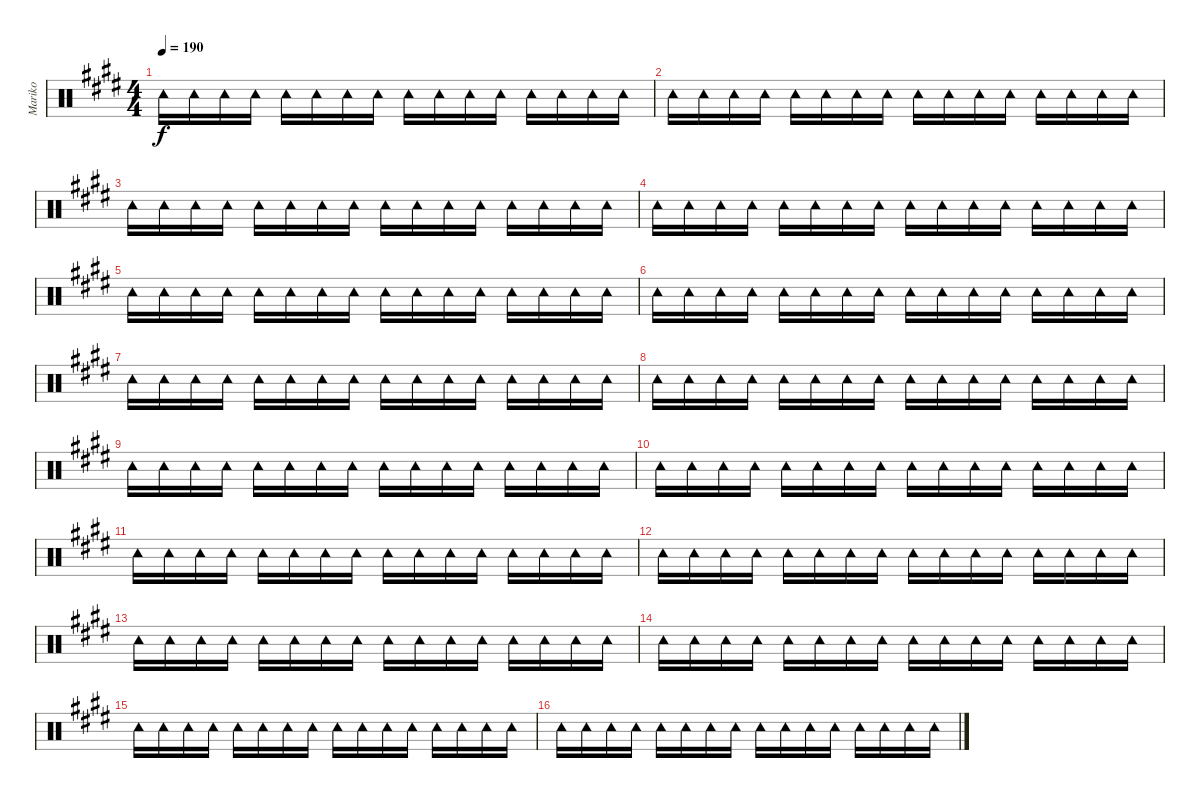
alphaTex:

\track ("Mariko" "Mariko") {mute instrument percussion}
\staff {score}
\articulation defaults
\ts (4 4)
\tempo 190
\clef neutral
\ks e "Tambourine (hit)".16{dy f} "Tambourine (hit)".16 "Tambourine (hit)".16 "Tambourine (hit)".16 "Tambourine (hit)".16 "Tambourine (hit)".16 "Tambourine (hit)".16 "Tambourine (hit)".16 "Tambourine (hit)".16 "Tambourine (hit)".16 "Tambourine (hit)".16 "Tambourine (hit)".16 "Tambourine (hit)".16 "Tambourine (hit)".16 "Tambourine (hit)".16 "Tambourine (hit)".16
|
"Tambourine (hit)".16 "Tambourine (hit)".16 "Tambourine (hit)".16 "Tambourine (hit)".16 "Tambourine (hit)".16 "Tambourine (hit)".16 "Tambourine (hit)".16 "Tambourine (hit)".16 "Tambourine (hit)".16 "Tambourine (hit)".16 "Tambourine (hit)".16 "Tambourine (hit)".16 "Tambourine (hit)".16 "Tambourine (hit)".16 "Tambourine (hit)".16 "Tambourine (hit)".16 |
"Tambourine (hit)".16 "Tambourine (hit)".16 "Tambourine (hit)".16 "Tambourine (hit)".16 "Tambourine (hit)".16 "Tambourine (hit)".16 "Tambourine (hit)".16 "Tambourine (hit)".16 "Tambourine (hit)".16 "Tambourine (hit)".16 "Tambourine (hit)".16 "Tambourine (hit)".16 "Tambourine (hit)".16 "Tambourine (hit)".16 "Tambourine (hit)".16 "Tambourine (hit)".16 |
"Tambourine (hit)".16 "Tambourine (hit)".16 "Tambourine (hit)".16 "Tambourine (hit)".16 "Tambourine (hit)".16 "Tambourine (hit)".16 "Tambourine (hit)".16 "Tambourine (hit)".16 "Tambourine (hit)".16 "Tambourine (hit)".16 "Tambourine (hit)".16 "Tambourine (hit)".16 "Tambourine (hit)".16 "Tambourine (hit)".16 "Tambourine (hit)".16 "Tambourine (hit)".16 |
"Tambourine (hit)".16 "Tambourine (hit)".16 "Tambourine (hit)".16 "Tambourine (hit)".16 "Tambourine (hit)".16 "Tambourine (hit)".16 "Tambourine (hit)".16 "Tambourine (hit)".16 "Tambourine (hit)".16 "Tambourine (hit)".16 "Tambourine (hit)".16 "Tambourine (hit)".16 "Tambourine (hit)".16 "Tambourine (hit)".16 "Tambourine (hit)".16 "Tambourine (hit)".16 |
"Tambourine (hit)".16 "Tambourine (hit)".16 "Tambourine (hit)".16 "Tambourine (hit)".16 "Tambourine (hit)".16 "Tambourine (hit)".16 "Tambourine (hit)".16 "Tambourine (hit)".16 "Tambourine (hit)".16 "Tambourine (hit)".16 "Tambourine (hit)".16 "Tambourine (hit)".16 "Tambourine (hit)".16 "Tambourine (hit)".16 "Tambourine (hit)".16 "Tambourine (hit)".16 |
"Tambourine (hit)".16 "Tambourine (hit)".16 "Tambourine (hit)".16 "Tambourine (hit)".16 "Tambourine (hit)".16 "Tambourine (hit)".16 "Tambourine (hit)".16 "Tambourine (hit)".16 "Tambourine (hit)".16 "Tambourine (hit)".16 "Tambourine (hit)".16 "Tambourine (hit)".16 "Tambourine (hit)".16 "Tambourine (hit)".16 "Tambourine (hit)".16 "Tambourine (hit)".16 |
"Tambourine (hit)".16 "Tambourine (hit)".16 "Tambourine (hit)".16 "Tambourine (hit)".16 "Tambourine (hit)".16 "Tambourine (hit)".16 "Tambourine (hit)".16 "Tambourine (hit)".16 "Tambourine (hit)".16 "Tambourine (hit)".16 "Tambourine (hit)".16 "Tambourine (hit)".16 "Tambourine (hit)".16 "Tambourine (hit)".16 "Tambourine (hit)".16 "Tambourine (hit)".16 |
"Tambourine (hit)".16 "Tambourine (hit)".16 "Tambourine (hit)".16 "Tambourine (hit)".16 "Tambourine (hit)".16 "Tambourine (hit)".16 "Tambourine (hit)".16 "Tambourine (hit)".16 "Tambourine (hit)".16 "Tambourine (hit)".16 "Tambourine (hit)".16 "Tambourine (hit)".16 "Tambourine (hit)".16 "Tambourine (hit)".16 "Tambourine (hit)".16 "Tambourine (hit)".16 |
"Tambourine (hit)".16 "Tambourine (hit)".16 "Tambourine (hit)".16 "Tambourine (hit)".16 "Tambourine (hit)".16 "Tambourine (hit)".16 "Tambourine (hit)".16 "Tambourine (hit)".16 "Tambourine (hit)".16 "Tambourine (hit)".16 "Tambourine (hit)".16 "Tambourine (hit)".16 "Tambourine (hit)".16 "Tambourine (hit)".16 "Tambourine (hit)".16 "Tambourine (hit)".16 |
"Tambourine (hit)".16 "Tambourine (hit)".16 "Tambourine (hit)".16 "Tambourine (hit)".16 "Tambourine (hit)".16 "Tambourine (hit)".16 "Tambourine (hit)".16 "Tambourine (hit)".16 "Tambourine (hit)".16 "Tambourine (hit)".16 "Tambourine (hit)".16 "Tambourine (hit)".16 "Tambourine (hit)".16 "Tambourine (hit)".16 "Tambourine (hit)".16 "Tambourine (hit)".16 |
"Tambourine (hit)".16 "Tambourine (hit)".16 "Tambourine (hit)".16 "Tambourine (hit)".16 "Tambourine (hit)".16 "Tambourine (hit)".16 "Tambourine (hit)".16 "Tambourine (hit)".16 "Tambourine (hit)".16 "Tambourine (hit)".16 "Tambourine (hit)".16 "Tambourine (hit)".16 "Tambourine (hit)".16 "Tambourine (hit)".16 "Tambourine (hit)".16 "Tambourine (hit)".16 |
"Tambourine (hit)".16 "Tambourine (hit)".16 "Tambourine (hit)".16 "Tambourine (hit)".16 "Tambourine (hit)".16 "Tambourine (hit)".16 "Tambourine (hit)".16 "Tambourine (hit)".16 "Tambourine (hit)".16 "Tambourine (hit)".16 "Tambourine (hit)".16 "Tambourine (hit)".16 "Tambourine (hit)".16 "Tambourine (hit)".16 "Tambourine (hit)".16 "Tambourine (hit)".16 |
"Tambourine (hit)".16 "Tambourine (hit)".16 "Tambourine (hit)".16 "Tambourine (hit)".16 "Tambourine (hit)".16 "Tambourine (hit)".16 "Tambourine (hit)".16 "Tambourine (hit)".16 "Tambourine (hit)".16 "Tambourine (hit)".16 "Tambourine (hit)".16 "Tambourine (hit)".16 "Tambourine (hit)".16 "Tambourine (hit)".16 "Tambourine (hit)".16 "Tambourine (hit)".16 |
"Tambourine (hit)".16 "Tambourine (hit)".16 "Tambourine (hit)".16 "Tambourine (hit)".16 "Tambourine (hit)".16 "Tambourine (hit)".16 "Tambourine (hit)".16 "Tambourine (hit)".16 "Tambourine (hit)".16 "Tambourine (hit)".16 "Tambourine (hit)".16 "Tambourine (hit)".16 "Tambourine (hit)".16 "Tambourine (hit)".16 "Tambourine (hit)".16 "Tambourine (hit)".16 |
"Tambourine (hit)".16 "Tambourine (hit)".16 "Tambourine (hit)".16 "Tambourine (hit)".16 "Tambourine (hit)".16 "Tambourine (hit)".16 "Tambourine (hit)".16 "Tambourine (hit)".16 "Tambourine (hit)".16 "Tambourine (hit)".16 "Tambourine (hit)".16 "Tambourine (hit)".16 "Tambourine (hit)".16 "Tambourine (hit)".16 "Tambourine (hit)".16 "Tambourine (hit)".16
